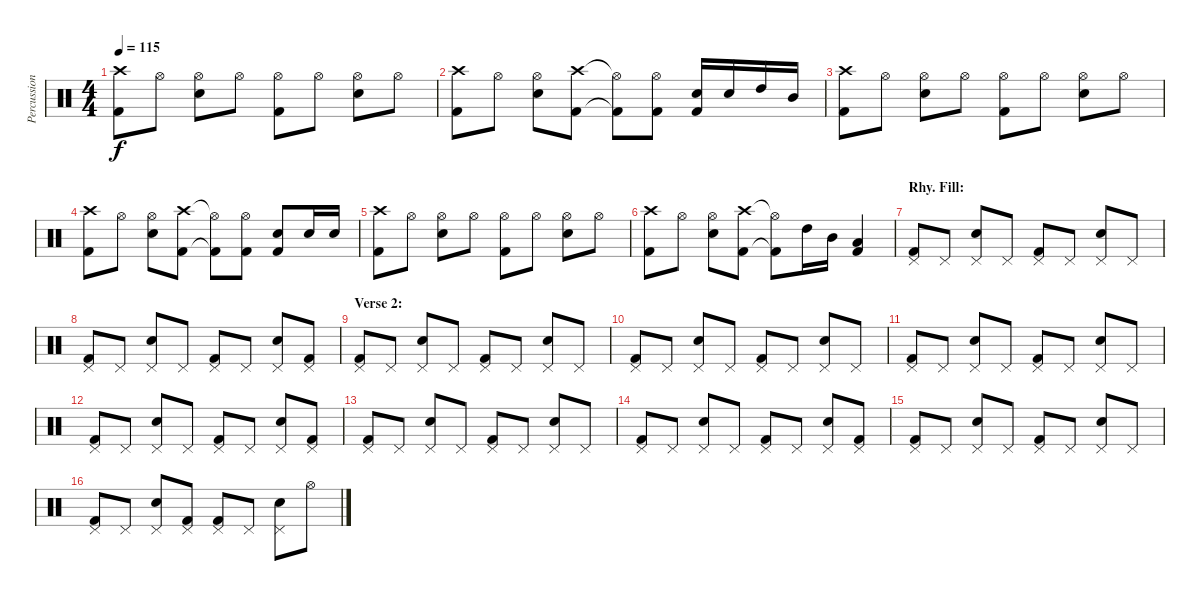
\track ("Percussion" "Percussion") {instrument percussion}
\staff {score}
\articulation defaults
\ts (4 4)
\tempo 115
\clef neutral
\ks c
("Crash high (hit)" "Kick (hit) 2").8{dy f} "Hi-Hat (open)".8 ("Hi-Hat (open)" "Snare (hit) 2").8 "Hi-Hat (open)".8 ("Hi-Hat (open)" "Kick (hit) 2").8 "Hi-Hat (open)".8 ("Hi-Hat (open)" "Snare (hit) 2").8 "Hi-Hat (open)".8 |
("Crash high (hit)" "Kick (hit) 2").8 "Hi-Hat (open)".8 ("Hi-Hat (open)" "Snare (hit) 2").8 ("Crash high (hit)" "Kick (hit) 2").8 ("Hi-Hat (open)"{t} "Kick (hit) 2"{t}).8 ("Hi-Hat (open)" "Kick (hit) 2").8 ("Snare (hit) 2" "Kick (hit) 2").16 "Snare (hit) 2".16 "High Tom (hit)".16 "Mid Tom (hit)".16 |
("Crash high (hit)" "Kick (hit) 2").8 "Hi-Hat (open)".8 ("Hi-Hat (open)" "Snare (hit) 2").8 "Hi-Hat (open)".8 ("Hi-Hat (open)" "Kick (hit) 2").8 "Hi-Hat (open)".8 ("Hi-Hat (open)" "Snare (hit) 2").8 "Hi-Hat (open)".8 |
("Crash high (hit)" "Kick (hit) 2").8 "Hi-Hat (open)".8 ("Hi-Hat (open)" "Snare (hit) 2").8 ("Crash high (hit)" "Kick (hit) 2").8 ("Hi-Hat (open)"{t} "Kick (hit) 2"{t}).8 ("Hi-Hat (open)" "Kick (hit) 2").8 ("Snare (hit) 2" "Kick (hit) 2").8 "Snare (hit) 2".16 "Snare (hit) 2".16 |
("Crash high (hit)" "Kick (hit) 2").8 "Hi-Hat (open)".8 ("Hi-Hat (open)" "Snare (hit) 2").8 "Hi-Hat (open)".8 ("Hi-Hat (open)" "Kick (hit) 2").8 "Hi-Hat (open)".8 ("Hi-Hat (open)" "Snare (hit) 2").8 "Hi-Hat (open)".8 |
("Crash high (hit)" "Kick (hit) 2").8 "Hi-Hat (open)".8 ("Hi-Hat (open)" "Snare (hit) 2").8 ("Crash high (hit)" "Kick (hit) 2").8 ("Hi-Hat (open)"{t} "Kick (hit) 2"{t}).8 "High Tom (hit)".16 "Mid Tom (hit)".16 ("Low Tom (hit)" "Kick (hit) 2").4 |
\section ("" "Rhy. Fill:")
("Pedal Hi-Hat (hit)" "Kick (hit) 2").8 "Pedal Hi-Hat (hit)".8 ("Pedal Hi-Hat (hit)" "Snare (hit) 2").8 "Pedal Hi-Hat (hit)".8 ("Pedal Hi-Hat (hit)" "Kick (hit) 2").8 "Pedal Hi-Hat (hit)".8 ("Pedal Hi-Hat (hit)" "Snare (hit) 2").8 "Pedal Hi-Hat (hit)".8 |
("Pedal Hi-Hat (hit)" "Kick (hit) 2").8 "Pedal Hi-Hat (hit)".8 ("Pedal Hi-Hat (hit)" "Snare (hit) 2").8 "Pedal Hi-Hat (hit)".8 ("Pedal Hi-Hat (hit)" "Kick (hit) 2").8 "Pedal Hi-Hat (hit)".8 ("Pedal Hi-Hat (hit)" "Snare (hit) 2").8 ("Pedal Hi-Hat (hit)" "Kick (hit) 2").8 |
\section ("" "Verse 2:")
("Pedal Hi-Hat (hit)" "Kick (hit) 2").8 "Pedal Hi-Hat (hit)".8 ("Pedal Hi-Hat (hit)" "Snare (hit) 2").8 "Pedal Hi-Hat (hit)".8 ("Pedal Hi-Hat (hit)" "Kick (hit) 2").8 "Pedal Hi-Hat (hit)".8 ("Pedal Hi-Hat (hit)" "Snare (hit) 2").8 "Pedal Hi-Hat (hit)".8 |
("Pedal Hi-Hat (hit)" "Kick (hit) 2").8 "Pedal Hi-Hat (hit)".8 ("Pedal Hi-Hat (hit)" "Snare (hit) 2").8 "Pedal Hi-Hat (hit)".8 ("Pedal Hi-Hat (hit)" "Kick (hit) 2").8 "Pedal Hi-Hat (hit)".8 ("Pedal Hi-Hat (hit)" "Snare (hit) 2").8 "Pedal Hi-Hat (hit)".8 |
("Pedal Hi-Hat (hit)" "Kick (hit) 2").8 "Pedal Hi-Hat (hit)".8 ("Pedal Hi-Hat (hit)" "Snare (hit) 2").8 "Pedal Hi-Hat (hit)".8 ("Pedal Hi-Hat (hit)" "Kick (hit) 2").8 "Pedal Hi-Hat (hit)".8 ("Pedal Hi-Hat (hit)" "Snare (hit) 2").8 "Pedal Hi-Hat (hit)".8 |
("Pedal Hi-Hat (hit)" "Kick (hit) 2").8 "Pedal Hi-Hat (hit)".8 ("Pedal Hi-Hat (hit)" "Snare (hit) 2").8 "Pedal Hi-Hat (hit)".8 ("Pedal Hi-Hat (hit)" "Kick (hit) 2").8 "Pedal Hi-Hat (hit)".8 ("Pedal Hi-Hat (hit)" "Snare (hit) 2").8 ("Pedal Hi-Hat (hit)" "Kick (hit) 2").8 |
("Pedal Hi-Hat (hit)" "Kick (hit) 2").8 "Pedal Hi-Hat (hit)".8 ("Pedal Hi-Hat (hit)" "Snare (hit) 2").8 "Pedal Hi-Hat (hit)".8 ("Pedal Hi-Hat (hit)" "Kick (hit) 2").8 "Pedal Hi-Hat (hit)".8 ("Pedal Hi-Hat (hit)" "Snare (hit) 2").8 "Pedal Hi-Hat (hit)".8 |
("Pedal Hi-Hat (hit)" "Kick (hit) 2").8 "Pedal Hi-Hat (hit)".8 ("Pedal Hi-Hat (hit)" "Snare (hit) 2").8 "Pedal Hi-Hat (hit)".8 ("Pedal Hi-Hat (hit)" "Kick (hit) 2").8 "Pedal Hi-Hat (hit)".8 ("Pedal Hi-Hat (hit)" "Snare (hit) 2").8 ("Pedal Hi-Hat (hit)" "Kick (hit) 2").8 |
("Pedal Hi-Hat (hit)" "Kick (hit) 2").8 "Pedal Hi-Hat (hit)".8 ("Pedal Hi-Hat (hit)" "Snare (hit) 2").8 "Pedal Hi-Hat (hit)".8 ("Pedal Hi-Hat (hit)" "Kick (hit) 2").8 "Pedal Hi-Hat (hit)".8 ("Pedal Hi-Hat (hit)" "Snare (hit) 2").8 "Pedal Hi-Hat (hit)".8 |
("Pedal Hi-Hat (hit)" "Kick (hit) 2").8 "Pedal Hi-Hat (hit)".8 ("Pedal Hi-Hat (hit)" "Snare (hit) 2").8 ("Pedal Hi-Hat (hit)" "Kick (hit) 2").8 ("Pedal Hi-Hat (hit)" "Kick (hit) 2").8 "Pedal Hi-Hat (hit)".8 ("Pedal Hi-Hat (hit)" "Snare (hit) 2").8 "Hi-Hat (open)".8
